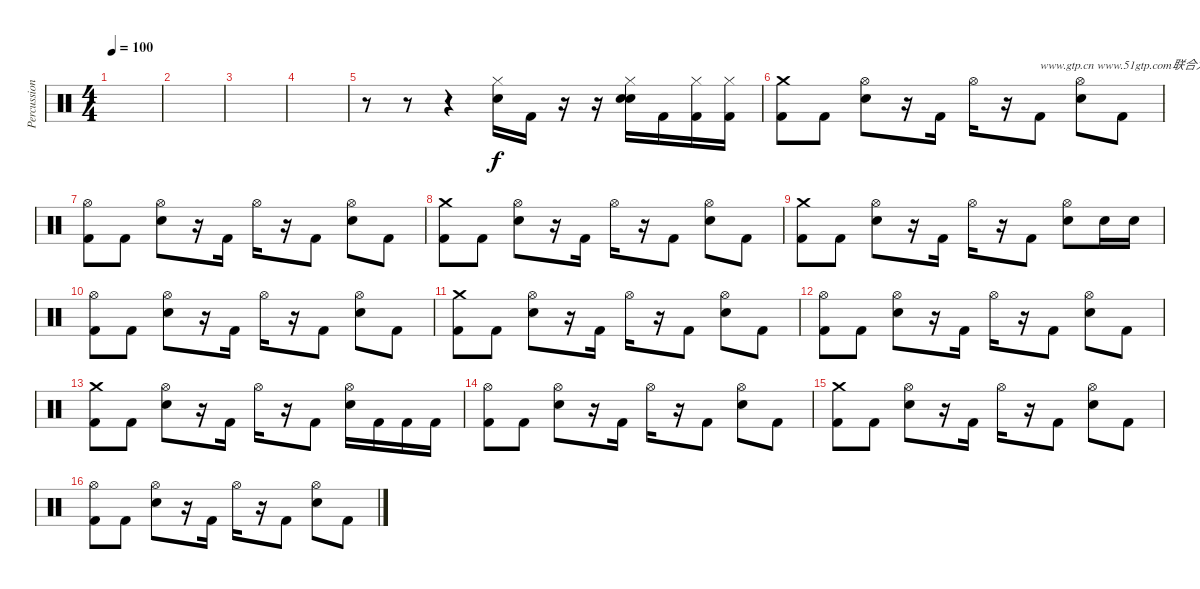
\track ("Percussion" "Percussion") {instrument percussion}
\staff {score}
\articulation defaults
\ts (4 4)
\tempo 100
\clef neutral
\ks c
|
|
|
|
r.8 r.8 r.4 ("Hi-Hat (closed)" "Electric Snare (hit)").16 "Kick (hit) 2".16 r.16 r.16 ("Hi-Hat (closed)" "Electric Snare (hit)" "Snare (hit) 2").16 "Kick (hit) 2".16 ("Hi-Hat (closed)" "Kick (hit) 2").16 ("Hi-Hat (closed)" "Kick (hit) 2").16 |
("Crash medium (hit)" "Kick (hit) 2").8 "Kick (hit) 2".8 ("Hi-Hat (open)" "Electric Snare (hit)").8 r.16 "Kick (hit) 2".16 "Hi-Hat (open)".16 r.16 "Kick (hit) 2".8{txt "www.gtp.cn www.51gtp.com联合为您提供优秀的GTP!"} ("Hi-Hat (open)" "Electric Snare (hit)").8 "Kick (hit) 2".8 |
("Hi-Hat (open)" "Kick (hit) 2").8 "Kick (hit) 2".8 ("Hi-Hat (open)" "Electric Snare (hit)").8 r.16 "Kick (hit) 2".16 "Hi-Hat (open)".16 r.16 "Kick (hit) 2".8 ("Hi-Hat (open)" "Electric Snare (hit)").8 "Kick (hit) 2".8 |
("Crash medium (hit)" "Kick (hit) 2").8 "Kick (hit) 2".8 ("Hi-Hat (open)" "Electric Snare (hit)").8 r.16 "Kick (hit) 2".16 "Hi-Hat (open)".16 r.16 "Kick (hit) 2".8 ("Hi-Hat (open)" "Electric Snare (hit)").8 "Kick (hit) 2".8 |
("Crash medium (hit)" "Kick (hit) 2").8 "Kick (hit) 2".8 ("Hi-Hat (open)" "Electric Snare (hit)").8 r.16 "Kick (hit) 2".16 "Hi-Hat (open)".16 r.16 "Kick (hit) 2".8 ("Hi-Hat (open)" "Electric Snare (hit)").8 "Electric Snare (hit)".16 "Snare (hit) 2".16 |
("Hi-Hat (open)" "Kick (hit) 2").8 "Kick (hit) 2".8 ("Hi-Hat (open)" "Electric Snare (hit)").8 r.16 "Kick (hit) 2".16 "Hi-Hat (open)".16 r.16 "Kick (hit) 2".8 ("Hi-Hat (open)" "Electric Snare (hit)").8 "Kick (hit) 2".8 |
("Crash medium (hit)" "Kick (hit) 2").8 "Kick (hit) 2".8 ("Hi-Hat (open)" "Electric Snare (hit)").8 r.16 "Kick (hit) 2".16 "Hi-Hat (open)".16 r.16 "Kick (hit) 2".8 ("Hi-Hat (open)" "Electric Snare (hit)").8 "Kick (hit) 2".8 |
("Hi-Hat (open)" "Kick (hit) 2").8 "Kick (hit) 2".8 ("Hi-Hat (open)" "Electric Snare (hit)").8 r.16 "Kick (hit) 2".16 "Hi-Hat (open)".16 r.16 "Kick (hit) 2".8 ("Hi-Hat (open)" "Electric Snare (hit)").8 "Kick (hit) 2".8 |
("Crash medium (hit)" "Kick (hit) 2").8 "Kick (hit) 2".8 ("Hi-Hat (open)" "Electric Snare (hit)").8 r.16 "Kick (hit) 2".16 "Hi-Hat (open)".16 r.16 "Kick (hit) 2".8 ("Hi-Hat (open)" "Electric Snare (hit)").16 "Kick (hit) 2".16 "Kick (hit) 2".16 "Kick (hit) 2".16 |
("Hi-Hat (open)" "Kick (hit) 2").8 "Kick (hit) 2".8 ("Hi-Hat (open)" "Electric Snare (hit)").8 r.16 "Kick (hit) 2".16 "Hi-Hat (open)".16 r.16 "Kick (hit) 2".8 ("Hi-Hat (open)" "Electric Snare (hit)").8 "Kick (hit) 2".8 |
("Crash medium (hit)" "Kick (hit) 2").8 "Kick (hit) 2".8 ("Hi-Hat (open)" "Electric Snare (hit)").8 r.16 "Kick (hit) 2".16 "Hi-Hat (open)".16 r.16 "Kick (hit) 2".8 ("Hi-Hat (open)" "Electric Snare (hit)").8 "Kick (hit) 2".8 |
("Hi-Hat (open)" "Kick (hit) 2").8 "Kick (hit) 2".8 ("Hi-Hat (open)" "Electric Snare (hit)").8 r.16 "Kick (hit) 2".16 "Hi-Hat (open)".16 r.16 "Kick (hit) 2".8 ("Hi-Hat (open)" "Electric Snare (hit)").8 "Kick (hit) 2".8
